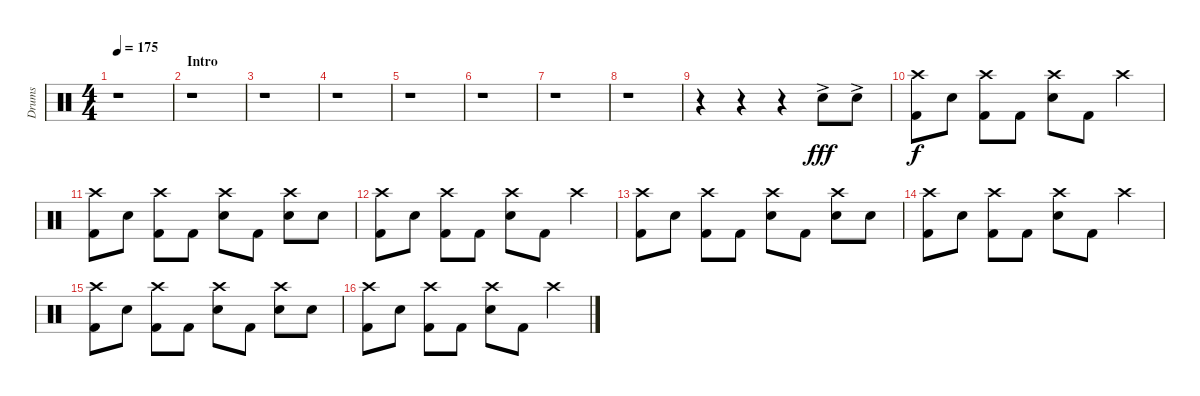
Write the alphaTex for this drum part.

\track ("Drums" "Drums") {instrument percussion}
\staff {score}
\articulation defaults
\ts (4 4)
\tempo 175
\clef neutral
\ks c
r.1{dy fff} |
\section ("" "Intro")
r.1 |
r.1 |
r.1 |
r.1 |
r.1 |
r.1 |
r.1 |
r.4 r.4 r.4 "Snare (hit) 2"{ac}.8 "Snare (hit) 2"{ac}.8 |
("Crash high (hit)" "Kick (hit) 2").8{dy f} "Snare (hit) 2".8 ("Crash high (hit)" "Kick (hit) 2").8 "Kick (hit) 2".8 ("Crash high (hit)" "Snare (hit) 2").8 "Kick (hit) 2".8 "Crash high (hit)".4 |
("Crash high (hit)" "Kick (hit) 2").8 "Snare (hit) 2".8 ("Crash high (hit)" "Kick (hit) 2").8 "Kick (hit) 2".8 ("Crash high (hit)" "Snare (hit) 2").8 "Kick (hit) 2".8 ("Crash high (hit)" "Snare (hit) 2").8 "Snare (hit) 2".8 |
("Crash high (hit)" "Kick (hit) 2").8 "Snare (hit) 2".8 ("Crash high (hit)" "Kick (hit) 2").8 "Kick (hit) 2".8 ("Crash high (hit)" "Snare (hit) 2").8 "Kick (hit) 2".8 "Crash high (hit)".4 |
("Crash high (hit)" "Kick (hit) 2").8 "Snare (hit) 2".8 ("Crash high (hit)" "Kick (hit) 2").8 "Kick (hit) 2".8 ("Crash high (hit)" "Snare (hit) 2").8 "Kick (hit) 2".8 ("Crash high (hit)" "Snare (hit) 2").8 "Snare (hit) 2".8 |
("Crash high (hit)" "Kick (hit) 2").8 "Snare (hit) 2".8 ("Crash high (hit)" "Kick (hit) 2").8 "Kick (hit) 2".8 ("Crash high (hit)" "Snare (hit) 2").8 "Kick (hit) 2".8 "Crash high (hit)".4 |
("Crash high (hit)" "Kick (hit) 2").8 "Snare (hit) 2".8 ("Crash high (hit)" "Kick (hit) 2").8 "Kick (hit) 2".8 ("Crash high (hit)" "Snare (hit) 2").8 "Kick (hit) 2".8 ("Crash high (hit)" "Snare (hit) 2").8 "Snare (hit) 2".8 |
("Crash high (hit)" "Kick (hit) 2").8 "Snare (hit) 2".8 ("Crash high (hit)" "Kick (hit) 2").8 "Kick (hit) 2".8 ("Crash high (hit)" "Snare (hit) 2").8 "Kick (hit) 2".8 "Crash high (hit)".4
